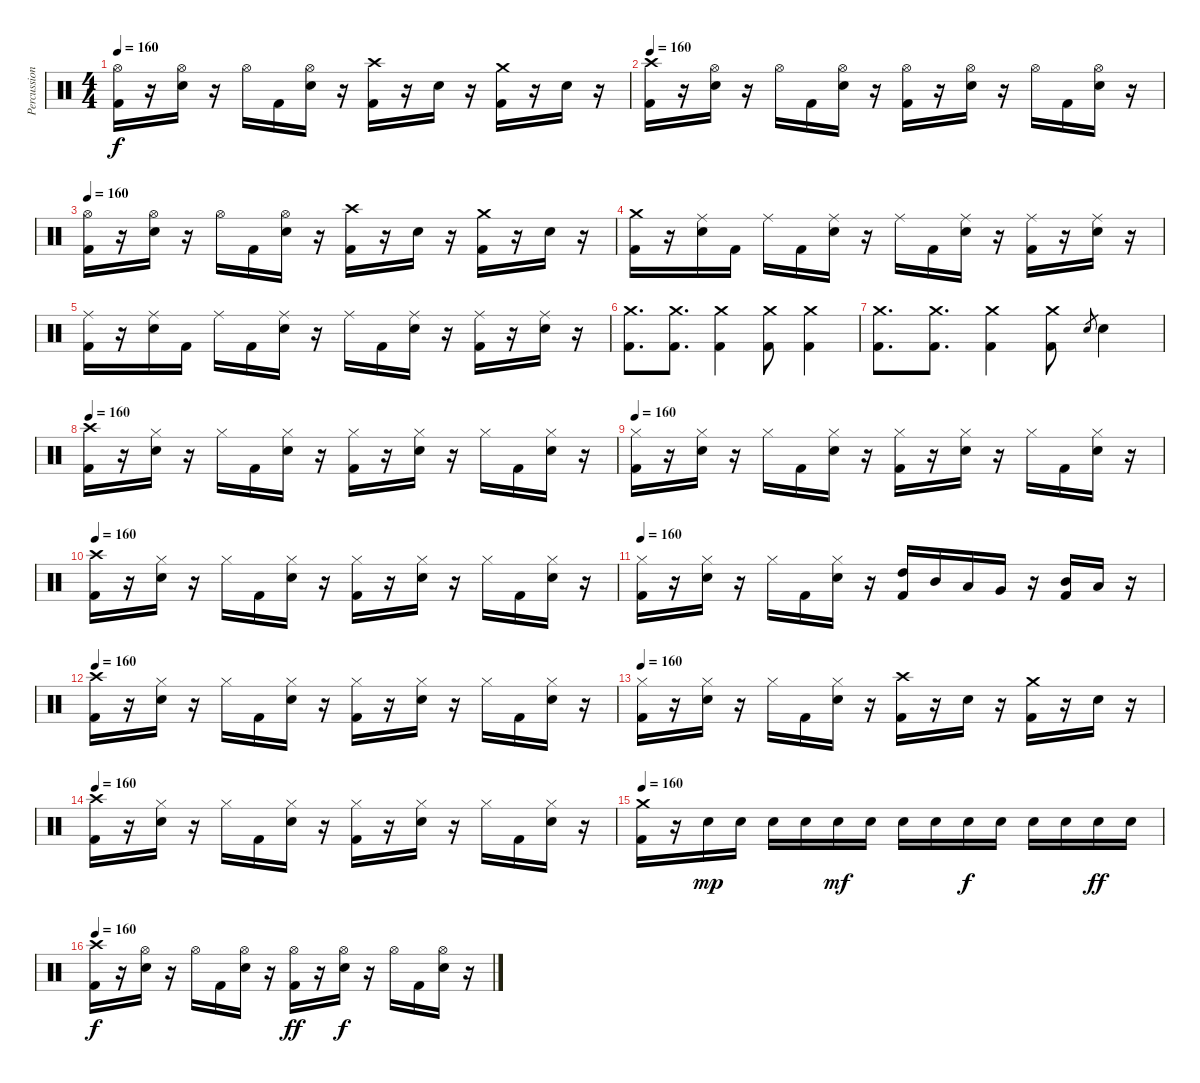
\track ("Percussion" "Percussion") {instrument percussion}
\staff {score}
\articulation defaults
\ts (4 4)
\tempo 160
\clef neutral
\ks c
("Hi-Hat (open)" "Kick (hit) 2").16{dy f} r.16 ("Hi-Hat (open)" "Snare (hit) 2").16 r.16 "Hi-Hat (open)".16 "Kick (hit) 2".16 ("Hi-Hat (open)" "Snare (hit) 2").16 r.16 ("Crash high (hit)" "Kick (hit) 2").16 r.16 "Snare (hit) 2".16 r.16 ("Crash medium (hit)" "Kick (hit) 2").16 r.16 "Snare (hit) 2".16 r.16 |
\tempo 160
("Crash high (hit)" "Kick (hit) 2").16 r.16 ("Hi-Hat (open)" "Snare (hit) 2").16 r.16 "Hi-Hat (open)".16 "Kick (hit) 2".16 ("Hi-Hat (open)" "Snare (hit) 2").16 r.16 ("Hi-Hat (open)" "Kick (hit) 2").16 r.16 ("Hi-Hat (open)" "Snare (hit) 2").16 r.16 "Hi-Hat (open)".16 "Kick (hit) 2".16 ("Hi-Hat (open)" "Snare (hit) 2").16 r.16 |
\tempo 160
("Hi-Hat (open)" "Kick (hit) 2").16 r.16 ("Hi-Hat (open)" "Snare (hit) 2").16 r.16 "Hi-Hat (open)".16 "Kick (hit) 2".16 ("Hi-Hat (open)" "Snare (hit) 2").16 r.16 ("Crash high (hit)" "Kick (hit) 2").16 r.16 "Snare (hit) 2".16 r.16 ("Crash medium (hit)" "Kick (hit) 2").16 r.16 "Snare (hit) 2".16 r.16 |
("Crash medium (hit)" "Kick (hit) 2").16 r.16 ("Ride (middle)" "Snare (hit) 2").16 "Kick (hit) 2".16 "Ride (middle)".16 "Kick (hit) 2".16 ("Ride (middle)" "Snare (hit) 2").16 r.16 "Ride (middle)".16 "Kick (hit) 2".16 ("Ride (middle)" "Snare (hit) 2").16 r.16 ("Ride (middle)" "Kick (hit) 2").16 r.16 ("Ride (middle)" "Snare (hit) 2").16 r.16 |
("Ride (middle)" "Kick (hit) 2").16 r.16 ("Ride (middle)" "Snare (hit) 2").16 "Kick (hit) 2".16 "Ride (middle)".16 "Kick (hit) 2".16 ("Ride (middle)" "Snare (hit) 2").16 r.16 "Ride (middle)".16 "Kick (hit) 2".16 ("Ride (middle)" "Snare (hit) 2").16 r.16 ("Ride (middle)" "Kick (hit) 2").16 r.16 ("Ride (middle)" "Snare (hit) 2").16 r.16 |
("Crash medium (hit)" "Kick (hit) 2").8{d} ("Crash medium (hit)" "Kick (hit) 2").8{d} ("Crash medium (hit)" "Kick (hit) 2").4 ("Crash medium (hit)" "Kick (hit) 2").8 ("Crash medium (hit)" "Kick (hit) 2").4 |
("Crash medium (hit)" "Kick (hit) 2").8{d} ("Crash medium (hit)" "Kick (hit) 2").8{d} ("Crash medium (hit)" "Kick (hit) 2").4 ("Crash medium (hit)" "Kick (hit) 2").8 "Snare (hit) 2".8{gr} "Snare (hit) 2".4 |
\tempo 160
("Crash high (hit)" "Kick (hit) 2").16 r.16 ("Hi-Hat (closed)" "Snare (hit) 2").16 r.16 "Hi-Hat (closed)".16 "Kick (hit) 2".16 ("Hi-Hat (closed)" "Snare (hit) 2").16 r.16 ("Hi-Hat (closed)" "Kick (hit) 2").16 r.16 ("Hi-Hat (closed)" "Snare (hit) 2").16 r.16 "Hi-Hat (closed)".16 "Kick (hit) 2".16 ("Hi-Hat (closed)" "Snare (hit) 2").16 r.16 |
\tempo 160
("Hi-Hat (closed)" "Kick (hit) 2").16 r.16 ("Hi-Hat (closed)" "Snare (hit) 2").16 r.16 "Hi-Hat (closed)".16 "Kick (hit) 2".16 ("Hi-Hat (closed)" "Snare (hit) 2").16 r.16 ("Hi-Hat (closed)" "Kick (hit) 2").16 r.16 ("Hi-Hat (closed)" "Snare (hit) 2").16 r.16 "Hi-Hat (closed)".16 "Kick (hit) 2".16 ("Hi-Hat (closed)" "Snare (hit) 2").16 r.16 |
\tempo 160
("Crash high (hit)" "Kick (hit) 2").16 r.16 ("Hi-Hat (closed)" "Snare (hit) 2").16 r.16 "Hi-Hat (closed)".16 "Kick (hit) 2".16 ("Hi-Hat (closed)" "Snare (hit) 2").16 r.16 ("Hi-Hat (closed)" "Kick (hit) 2").16 r.16 ("Hi-Hat (closed)" "Snare (hit) 2").16 r.16 "Hi-Hat (closed)".16 "Kick (hit) 2".16 ("Hi-Hat (closed)" "Snare (hit) 2").16 r.16 |
\tempo 160
("Hi-Hat (closed)" "Kick (hit) 2").16 r.16 ("Hi-Hat (closed)" "Snare (hit) 2").16 r.16 "Hi-Hat (closed)".16 "Kick (hit) 2".16 ("Hi-Hat (closed)" "Snare (hit) 2").16 r.16 ("High Tom (hit)" "Kick (hit) 2").16 "Mid Tom (hit)".16 "Low Tom (hit)".16 "Very Low Tom (hit)".16 r.16 ("Mid Tom (hit)" "Kick (hit) 2").16 "Low Tom (hit)".16 r.16 |
\tempo 160
("Crash high (hit)" "Kick (hit) 2").16 r.16 ("Hi-Hat (closed)" "Snare (hit) 2").16 r.16 "Hi-Hat (closed)".16 "Kick (hit) 2".16 ("Hi-Hat (closed)" "Snare (hit) 2").16 r.16 ("Hi-Hat (closed)" "Kick (hit) 2").16 r.16 ("Hi-Hat (closed)" "Snare (hit) 2").16 r.16 "Hi-Hat (closed)".16 "Kick (hit) 2".16 ("Hi-Hat (closed)" "Snare (hit) 2").16 r.16 |
\tempo 160
("Hi-Hat (closed)" "Kick (hit) 2").16 r.16 ("Hi-Hat (closed)" "Snare (hit) 2").16 r.16 "Hi-Hat (closed)".16 "Kick (hit) 2".16 ("Hi-Hat (closed)" "Snare (hit) 2").16 r.16 ("Crash high (hit)" "Kick (hit) 2").16 r.16 "Snare (hit) 2".16 r.16 ("Crash medium (hit)" "Kick (hit) 2").16 r.16 "Snare (hit) 2".16 r.16 |
\tempo 160
("Crash high (hit)" "Kick (hit) 2").16 r.16 ("Hi-Hat (closed)" "Snare (hit) 2").16 r.16 "Hi-Hat (closed)".16 "Kick (hit) 2".16 ("Hi-Hat (closed)" "Snare (hit) 2").16 r.16 ("Hi-Hat (closed)" "Kick (hit) 2").16 r.16 ("Hi-Hat (closed)" "Snare (hit) 2").16 r.16 "Hi-Hat (closed)".16 "Kick (hit) 2".16 ("Hi-Hat (closed)" "Snare (hit) 2").16 r.16 |
\tempo 160
("Crash medium (hit)" "Kick (hit) 2").16 r.16 "Snare (hit) 2".16{dy mp} "Snare (hit) 2".16 "Snare (hit) 2".16 "Snare (hit) 2".16 "Snare (hit) 2".16{dy mf} "Snare (hit) 2".16 "Snare (hit) 2".16 "Snare (hit) 2".16 "Snare (hit) 2".16{dy f} "Snare (hit) 2".16 "Snare (hit) 2".16 "Snare (hit) 2".16 "Snare (hit) 2".16{dy ff} "Snare (hit) 2".16 |
\tempo 160
("Crash high (hit)" "Kick (hit) 2").16{dy f} r.16 ("Hi-Hat (open)" "Snare (hit) 2").16 r.16 "Hi-Hat (open)".16 "Kick (hit) 2".16 ("Hi-Hat (open)" "Snare (hit) 2").16 r.16 ("Hi-Hat (open)" "Kick (hit) 2").16{dy ff} r.16 ("Hi-Hat (open)" "Snare (hit) 2").16{dy f} r.16 "Hi-Hat (open)".16 "Kick (hit) 2".16 ("Hi-Hat (open)" "Snare (hit) 2").16 r.16
